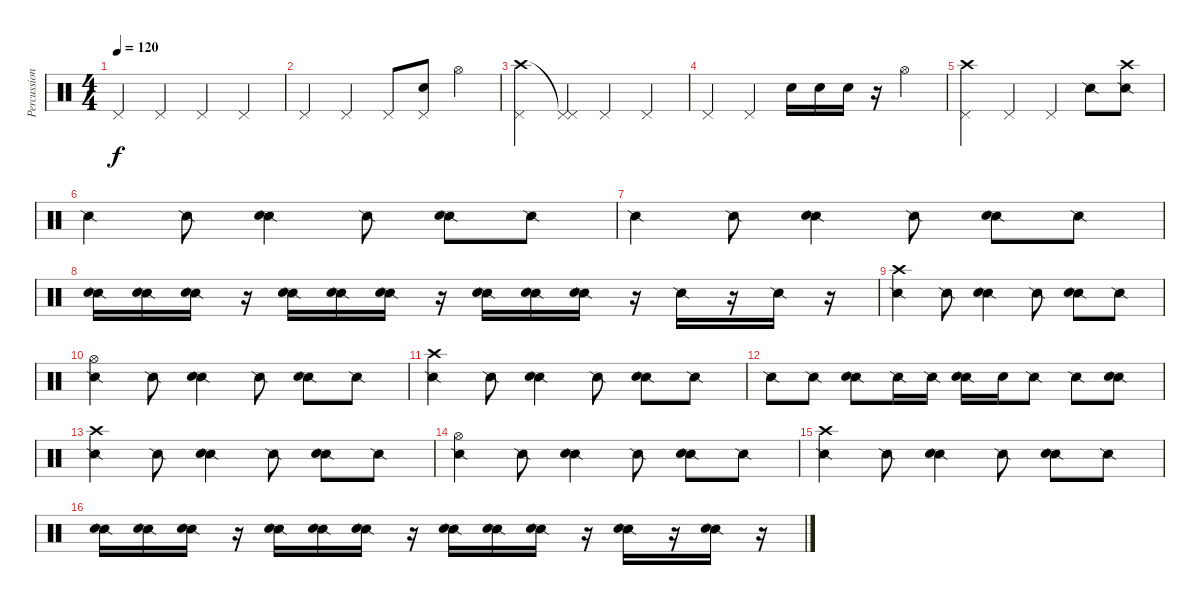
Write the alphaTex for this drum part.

\track ("Percussion" "Percussion") {instrument percussion}
\staff {score}
\articulation defaults
\ts (4 4)
\tempo 120
\clef neutral
\ks c "Pedal Hi-Hat (hit)".4{dy f} "Pedal Hi-Hat (hit)".4 "Pedal Hi-Hat (hit)".4 "Pedal Hi-Hat (hit)".4
|
"Pedal Hi-Hat (hit)".4 "Pedal Hi-Hat (hit)".4 "Pedal Hi-Hat (hit)".8 ("Pedal Hi-Hat (hit)" "Snare (hit) 2").8 "Hi-Hat (open)".4 |
("Crash high (hit)" "Pedal Hi-Hat (hit)").4 ("Pedal Hi-Hat (hit)"{t} "Pedal Hi-Hat (hit)").4 "Pedal Hi-Hat (hit)".4 "Pedal Hi-Hat (hit)".4 |
"Pedal Hi-Hat (hit)".4 "Pedal Hi-Hat (hit)".4 "Snare (hit) 2".16 "Snare (hit) 2".16 "Snare (hit) 2".16 r.16 "Hi-Hat (open)".4 |
("Crash high (hit)" "Pedal Hi-Hat (hit)").4 "Pedal Hi-Hat (hit)".4 "Pedal Hi-Hat (hit)".4 "Snare (side stick) 2".8 ("Snare (side stick) 2" "Crash high (hit)").8 |
"Snare (side stick) 2".4 "Snare (side stick) 2".8 ("Snare (side stick) 2" "Snare (hit) 2").4 "Snare (side stick) 2".8 ("Snare (side stick) 2" "Electric Snare (hit)").8 "Snare (side stick) 2".8 |
"Snare (side stick) 2".4 "Snare (side stick) 2".8 ("Snare (side stick) 2" "Snare (hit) 2").4 "Snare (side stick) 2".8 ("Snare (side stick) 2" "Electric Snare (hit)").8 "Snare (side stick) 2".8 |
("Snare (side stick) 2" "Snare (hit) 2").16 ("Snare (side stick) 2" "Snare (hit) 2").16 ("Snare (side stick) 2" "Snare (hit) 2").16 r.16 ("Snare (side stick) 2" "Snare (hit) 2").16 ("Snare (side stick) 2" "Snare (hit) 2").16 ("Snare (side stick) 2" "Snare (hit) 2").16 r.16 ("Snare (side stick) 2" "Snare (hit) 2").16 ("Snare (side stick) 2" "Snare (hit) 2").16 ("Snare (side stick) 2" "Snare (hit) 2").16 r.16 "Snare (side stick) 2".16 r.16 "Snare (side stick) 2".16 r.16 |
("Snare (side stick) 2" "Crash high (hit)").4 "Snare (side stick) 2".8 ("Snare (side stick) 2" "Snare (hit) 2").4 "Snare (side stick) 2".8 ("Snare (side stick) 2" "Electric Snare (hit)").8 "Snare (side stick) 2".8 |
("Snare (side stick) 2" "Hi-Hat (open)").4 "Snare (side stick) 2".8 ("Snare (side stick) 2" "Snare (hit) 2").4 "Snare (side stick) 2".8 ("Snare (side stick) 2" "Electric Snare (hit)").8 "Snare (side stick) 2".8 |
("Snare (side stick) 2" "Crash high (hit)").4 "Snare (side stick) 2".8 ("Snare (side stick) 2" "Snare (hit) 2").4 "Snare (side stick) 2".8 ("Snare (side stick) 2" "Electric Snare (hit)").8 "Snare (side stick) 2".8 |
"Snare (side stick) 2".8 "Snare (side stick) 2".8 ("Snare (side stick) 2" "Electric Snare (hit)").8 "Snare (side stick) 2".16 "Snare (side stick) 2".16 ("Snare (side stick) 2" "Snare (hit) 2").16 "Snare (hit) 2".16 "Snare (side stick) 2".8 "Snare (side stick) 2".8 ("Snare (side stick) 2" "Snare (hit) 2").8 |
("Snare (side stick) 2" "Crash high (hit)").4 "Snare (side stick) 2".8 ("Snare (side stick) 2" "Snare (hit) 2").4 "Snare (side stick) 2".8 ("Snare (side stick) 2" "Electric Snare (hit)").8 "Snare (side stick) 2".8 |
("Snare (side stick) 2" "Hi-Hat (open)").4 "Snare (side stick) 2".8 ("Snare (side stick) 2" "Snare (hit) 2").4 "Snare (side stick) 2".8 ("Snare (side stick) 2" "Electric Snare (hit)").8 "Snare (side stick) 2".8 |
("Snare (side stick) 2" "Crash high (hit)").4 "Snare (side stick) 2".8 ("Snare (side stick) 2" "Snare (hit) 2").4 "Snare (side stick) 2".8 ("Snare (side stick) 2" "Electric Snare (hit)").8 "Snare (side stick) 2".8 |
("Snare (side stick) 2" "Snare (hit) 2").16 ("Snare (side stick) 2" "Snare (hit) 2").16 ("Snare (side stick) 2" "Snare (hit) 2").16 r.16 ("Snare (side stick) 2" "Snare (hit) 2").16 ("Snare (side stick) 2" "Snare (hit) 2").16 ("Snare (side stick) 2" "Snare (hit) 2").16 r.16 ("Snare (side stick) 2" "Snare (hit) 2").16 ("Snare (side stick) 2" "Snare (hit) 2").16 ("Snare (side stick) 2" "Snare (hit) 2").16 r.16 ("Snare (side stick) 2" "Snare (hit) 2").16 r.16 ("Snare (side stick) 2" "Snare (hit) 2").16 r.16
